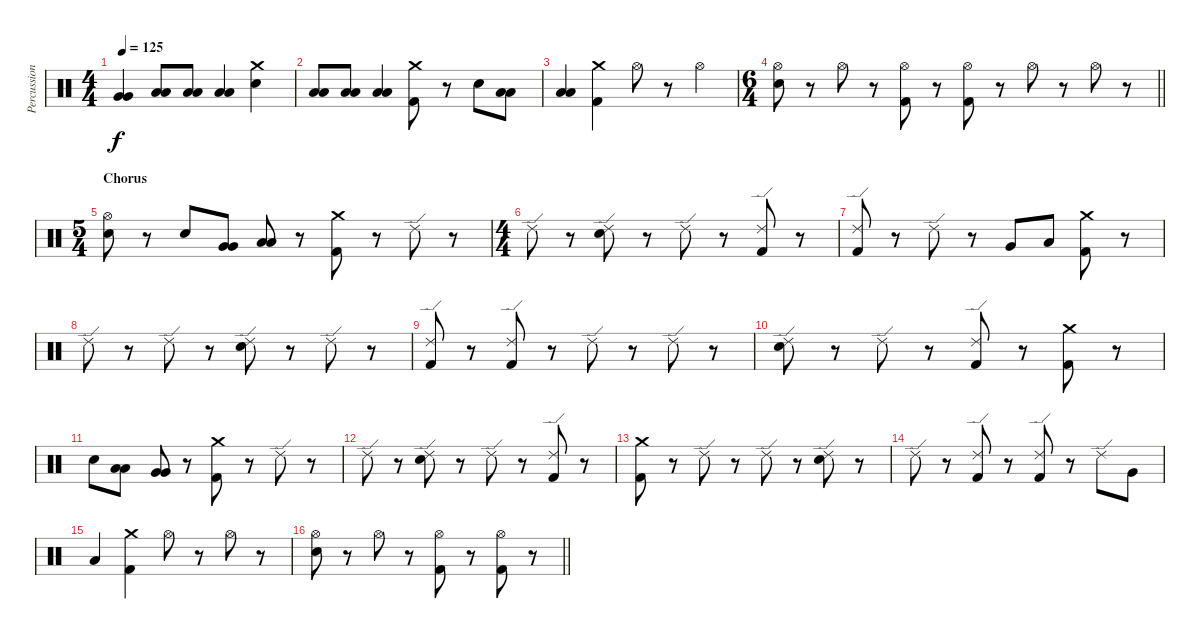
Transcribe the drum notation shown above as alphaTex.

\track ("Percussion" "Percussion") {instrument percussion}
\staff {score}
\articulation defaults
\ts (4 4)
\tempo 125
\clef neutral
\ks c
("Very Low Tom (hit)" "Very Low Tom (hit)").4{dy f} ("Low Tom (hit)" "Low Tom (hit)").8 ("Low Floor Tom (hit)" "Low Floor Tom (hit)").8 ("Low Tom (hit)" "Low Tom (hit)").4 ("Electric Snare (hit)" "Crash medium (hit)").4 |
("Low Tom (hit)" "Low Tom (hit)").8 ("Low Floor Tom (hit)" "Low Floor Tom (hit)").8 ("Low Tom (hit)" "Low Tom (hit)").4 ("Crash medium (hit)" "Kick (hit) 2").8 r.8 "Electric Snare (hit)".8 ("Low Tom (hit)" "Low Tom (hit)").8 |
("Low Floor Tom (hit)" "Low Floor Tom (hit)").4 ("Crash medium (hit)" "Kick (hit) 2").4 "Hi-Hat (open)".8 r.8 "Hi-Hat (open)".4 |
\ts (6 4)
\barLineRight lightlight
("Hi-Hat (open)" "Electric Snare (hit)").8 r.8 "Hi-Hat (open)".8 r.8 ("Hi-Hat (open)" "Kick (hit) 2").8 r.8 ("Hi-Hat (open)" "Kick (hit) 2").8 r.8 "Hi-Hat (open)".8 r.8 "Hi-Hat (open)".8 r.8 |
\ts (5 4)
\section ("" "Chorus")
("Hi-Hat (open)" "Electric Snare (hit)").8 r.8 "Electric Snare (hit)".8 ("Very Low Tom (hit)" "Very Low Tom (hit)").8 ("Low Tom (hit)" "Low Tom (hit)").8 r.8 ("Crash medium (hit)" "Kick (hit) 2").8 r.8 "Ride (edge) 2".8 r.8 |
\ts (4 4)
"Ride (edge) 2".8 r.8 ("Ride (edge) 2" "Electric Snare (hit)").8 r.8 "Ride (edge) 2".8 r.8 ("Ride (edge) 2" "Kick (hit) 2").8 r.8 |
("Ride (edge) 2" "Kick (hit) 2").8 r.8 "Ride (edge) 2".8 r.8 "Very Low Tom (hit)".8 "Low Tom (hit)".8 ("Crash medium (hit)" "Kick (hit) 2").8 r.8 |
"Ride (edge) 2".8 r.8 "Ride (edge) 2".8 r.8 ("Ride (edge) 2" "Electric Snare (hit)").8 r.8 "Ride (edge) 2".8 r.8 |
("Ride (edge) 2" "Kick (hit) 2").8 r.8 ("Ride (edge) 2" "Kick (hit) 2").8 r.8 "Ride (edge) 2".8 r.8 "Ride (edge) 2".8 r.8 |
("Ride (edge) 2" "Electric Snare (hit)").8 r.8 "Ride (edge) 2".8 r.8 ("Ride (edge) 2" "Kick (hit) 2").8 r.8 ("Crash medium (hit)" "Kick (hit) 2").8 r.8 |
"Electric Snare (hit)".8 ("Low Tom (hit)" "Low Tom (hit)").8 ("Very Low Tom (hit)" "Very Low Tom (hit)").8 r.8 ("Crash medium (hit)" "Kick (hit) 2").8 r.8 "Ride (edge) 2".8 r.8 |
"Ride (edge) 2".8 r.8 ("Ride (edge) 2" "Electric Snare (hit)").8 r.8 "Ride (edge) 2".8 r.8 ("Ride (edge) 2" "Kick (hit) 2").8 r.8 |
("Crash medium (hit)" "Kick (hit) 2").8 r.8 "Ride (edge) 2".8 r.8 "Ride (edge) 2".8 r.8 ("Ride (edge) 2" "Electric Snare (hit)").8 r.8 |
"Ride (edge) 2".8 r.8 ("Ride (edge) 2" "Kick (hit) 2").8 r.8 ("Ride (edge) 2" "Kick (hit) 2").8 r.8 "Ride (edge) 2".8 "Very Low Tom (hit)".8 |
"Low Tom (hit)".4 ("Crash medium (hit)" "Kick (hit) 2").4 "Hi-Hat (open)".8 r.8 "Hi-Hat (open)".8 r.8 |
\barLineRight lightlight
("Hi-Hat (open)" "Electric Snare (hit)").8 r.8 "Hi-Hat (open)".8 r.8 ("Hi-Hat (open)" "Kick (hit) 2").8 r.8 ("Hi-Hat (open)" "Kick (hit) 2").8 r.8
